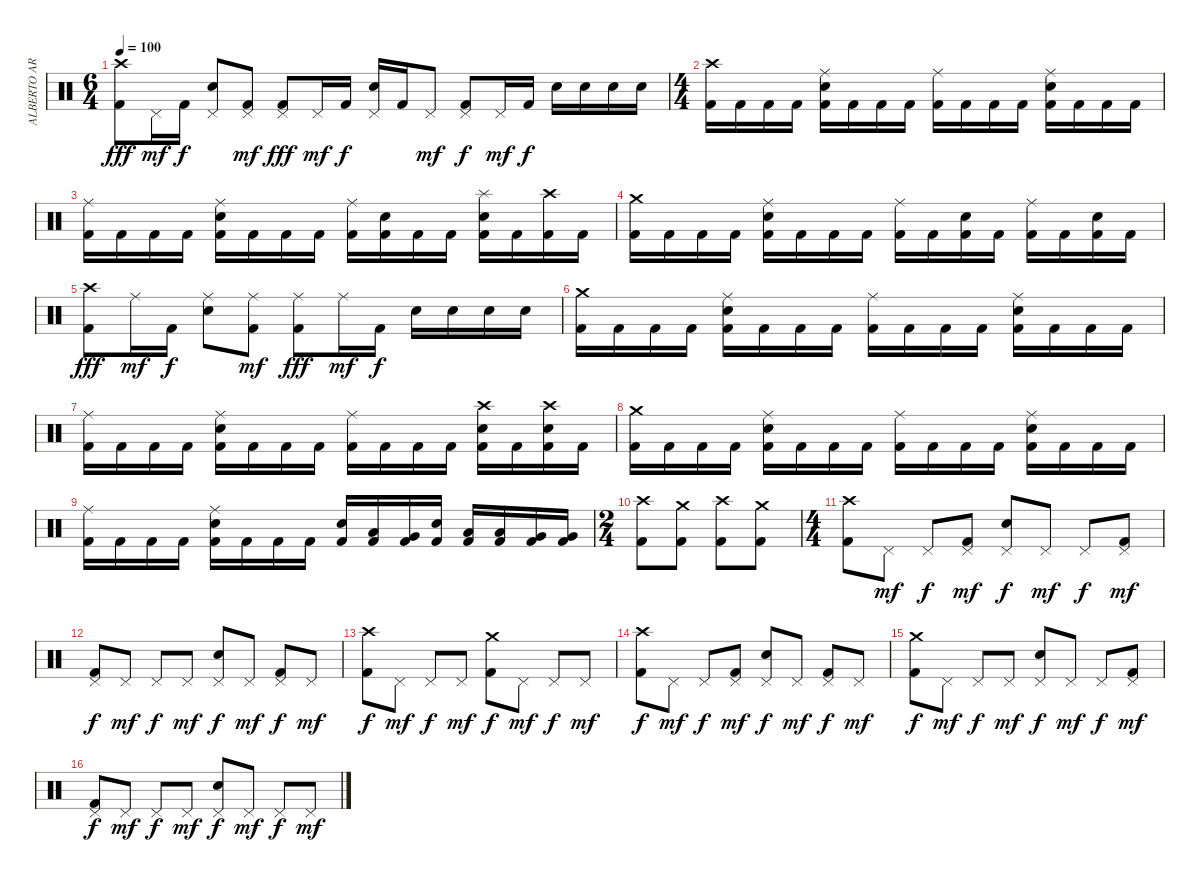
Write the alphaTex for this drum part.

\track ("ALBERTO ARDINES" "ALBERTO AR") {instrument percussion}
\staff {score}
\articulation defaults
\ts (6 4)
\tempo 100
\clef neutral
\ks c
("Crash high (hit)" "Kick (hit) 2").8{dy fff} "Pedal Hi-Hat (hit)".16{dy mf} "Kick (hit) 2".16{dy f} ("Pedal Hi-Hat (hit)" "Electric Snare (hit)").8 ("Pedal Hi-Hat (hit)" "Kick (hit) 2").8{dy mf} ("Pedal Hi-Hat (hit)" "Kick (hit) 2").8{dy fff} "Pedal Hi-Hat (hit)".16{dy mf} "Kick (hit) 2".16{dy f} ("Pedal Hi-Hat (hit)" "Electric Snare (hit)").16 "Kick (hit) 2".16 "Pedal Hi-Hat (hit)".8{dy mf} ("Pedal Hi-Hat (hit)" "Kick (hit) 2").8{dy f} "Pedal Hi-Hat (hit)".16{dy mf} "Kick (hit) 2".16{dy f} "Electric Snare (hit)".16 "Electric Snare (hit)".16 "Electric Snare (hit)".16 "Electric Snare (hit)".16 |
\ts (4 4)
("Crash high (hit)" "Kick (hit) 2").16 "Kick (hit) 2".16 "Kick (hit) 2".16 "Kick (hit) 2".16 ("Ride (middle)" "Electric Snare (hit)" "Kick (hit) 2").16 "Kick (hit) 2".16 "Kick (hit) 2".16 "Kick (hit) 2".16 ("Ride (middle)" "Kick (hit) 2").16 "Kick (hit) 2".16 "Kick (hit) 2".16 "Kick (hit) 2".16 ("Ride (middle)" "Electric Snare (hit)" "Kick (hit) 2").16 "Kick (hit) 2".16 "Kick (hit) 2".16 "Kick (hit) 2".16 |
("Ride (middle)" "Kick (hit) 2").16 "Kick (hit) 2".16 "Kick (hit) 2".16 "Kick (hit) 2".16 ("Ride (middle)" "Electric Snare (hit)" "Kick (hit) 2").16 "Kick (hit) 2".16 "Kick (hit) 2".16 "Kick (hit) 2".16 ("Ride (middle)" "Kick (hit) 2").16 ("Electric Snare (hit)" "Kick (hit) 2").16 "Kick (hit) 2".16 "Kick (hit) 2".16 ("Splash (hit)" "Electric Snare (hit)" "Kick (hit) 2").16 "Kick (hit) 2".16 ("Crash high (hit)" "Kick (hit) 2").16 "Kick (hit) 2".16 |
("Crash medium (hit)" "Kick (hit) 2").16 "Kick (hit) 2".16 "Kick (hit) 2".16 "Kick (hit) 2".16 ("Ride (middle)" "Electric Snare (hit)" "Kick (hit) 2").16 "Kick (hit) 2".16 "Kick (hit) 2".16 "Kick (hit) 2".16 ("Ride (middle)" "Kick (hit) 2").16 "Kick (hit) 2".16 ("Electric Snare (hit)" "Kick (hit) 2").16 "Kick (hit) 2".16 ("Ride (middle)" "Kick (hit) 2").16 "Kick (hit) 2".16 ("Electric Snare (hit)" "Kick (hit) 2").16 "Kick (hit) 2".16 |
("Crash high (hit)" "Kick (hit) 2").8{dy fff} "Ride (middle)".16{dy mf} "Kick (hit) 2".16{dy f} ("Ride (middle)" "Electric Snare (hit)").8 ("Ride (middle)" "Kick (hit) 2").8{dy mf} ("Ride (middle)" "Kick (hit) 2").8{dy fff} "Ride (middle)".16{dy mf} "Kick (hit) 2".16{dy f} "Electric Snare (hit)".16 "Electric Snare (hit)".16 "Electric Snare (hit)".16 "Electric Snare (hit)".16 |
("Crash medium (hit)" "Kick (hit) 2").16 "Kick (hit) 2".16 "Kick (hit) 2".16 "Kick (hit) 2".16 ("Ride (middle)" "Electric Snare (hit)" "Kick (hit) 2").16 "Kick (hit) 2".16 "Kick (hit) 2".16 "Kick (hit) 2".16 ("Ride (middle)" "Kick (hit) 2").16 "Kick (hit) 2".16 "Kick (hit) 2".16 "Kick (hit) 2".16 ("Ride (middle)" "Electric Snare (hit)" "Kick (hit) 2").16 "Kick (hit) 2".16 "Kick (hit) 2".16 "Kick (hit) 2".16 |
("Ride (middle)" "Kick (hit) 2").16 "Kick (hit) 2".16 "Kick (hit) 2".16 "Kick (hit) 2".16 ("Ride (middle)" "Electric Snare (hit)" "Kick (hit) 2").16 "Kick (hit) 2".16 "Kick (hit) 2".16 "Kick (hit) 2".16 ("Ride (middle)" "Kick (hit) 2").16 "Kick (hit) 2".16 "Kick (hit) 2".16 "Kick (hit) 2".16 ("Crash high (hit)" "Electric Snare (hit)" "Kick (hit) 2").16 "Kick (hit) 2".16 ("Crash high (hit)" "Electric Snare (hit)" "Kick (hit) 2").16 "Kick (hit) 2".16 |
("Crash medium (hit)" "Kick (hit) 2").16 "Kick (hit) 2".16 "Kick (hit) 2".16 "Kick (hit) 2".16 ("Ride (middle)" "Electric Snare (hit)" "Kick (hit) 2").16 "Kick (hit) 2".16 "Kick (hit) 2".16 "Kick (hit) 2".16 ("Ride (middle)" "Kick (hit) 2").16 "Kick (hit) 2".16 "Kick (hit) 2".16 "Kick (hit) 2".16 ("Ride (middle)" "Electric Snare (hit)" "Kick (hit) 2").16 "Kick (hit) 2".16 "Kick (hit) 2".16 "Kick (hit) 2".16 |
("Ride (middle)" "Kick (hit) 2").16 "Kick (hit) 2".16 "Kick (hit) 2".16 "Kick (hit) 2".16 ("Ride (middle)" "Electric Snare (hit)" "Kick (hit) 2").16 "Kick (hit) 2".16 "Kick (hit) 2".16 "Kick (hit) 2".16 ("Electric Snare (hit)" "Kick (hit) 2").16 ("Low Tom (hit)" "Kick (hit) 2").16 ("Very Low Tom (hit)" "Kick (hit) 2").16 ("Electric Snare (hit)" "Kick (hit) 2").16 ("Low Tom (hit)" "Kick (hit) 2").16 ("Low Tom (hit)" "Kick (hit) 2").16 ("Very Low Tom (hit)" "Kick (hit) 2").16 ("Very Low Tom (hit)" "Kick (hit) 2").16 |
\ts (2 4)
("Crash high (hit)" "Kick (hit) 2").8 ("Crash medium (hit)" "Kick (hit) 2").8 ("Crash high (hit)" "Kick (hit) 2").8 ("Crash medium (hit)" "Kick (hit) 2").8 |
\ts (4 4)
("Crash high (hit)" "Kick (hit) 2").8 "Pedal Hi-Hat (hit)".8{dy mf} "Pedal Hi-Hat (hit)".8{dy f} ("Pedal Hi-Hat (hit)" "Kick (hit) 2").8{dy mf} ("Pedal Hi-Hat (hit)" "Electric Snare (hit)").8{dy f} "Pedal Hi-Hat (hit)".8{dy mf} "Pedal Hi-Hat (hit)".8{dy f} ("Pedal Hi-Hat (hit)" "Kick (hit) 2").8{dy mf} |
("Pedal Hi-Hat (hit)" "Kick (hit) 2").8{dy f} "Pedal Hi-Hat (hit)".8{dy mf} "Pedal Hi-Hat (hit)".8{dy f} "Pedal Hi-Hat (hit)".8{dy mf} ("Pedal Hi-Hat (hit)" "Electric Snare (hit)").8{dy f} "Pedal Hi-Hat (hit)".8{dy mf} ("Pedal Hi-Hat (hit)" "Kick (hit) 2").8{dy f} "Pedal Hi-Hat (hit)".8{dy mf} |
("Crash high (hit)" "Kick (hit) 2").8{dy f} "Pedal Hi-Hat (hit)".8{dy mf} "Pedal Hi-Hat (hit)".8{dy f} "Pedal Hi-Hat (hit)".8{dy mf} ("Crash medium (hit)" "Kick (hit) 2").8{dy f} "Pedal Hi-Hat (hit)".8{dy mf} "Pedal Hi-Hat (hit)".8{dy f} "Pedal Hi-Hat (hit)".8{dy mf} |
("Crash high (hit)" "Kick (hit) 2").8{dy f} "Pedal Hi-Hat (hit)".8{dy mf} "Pedal Hi-Hat (hit)".8{dy f} ("Pedal Hi-Hat (hit)" "Kick (hit) 2").8{dy mf} ("Pedal Hi-Hat (hit)" "Electric Snare (hit)").8{dy f} "Pedal Hi-Hat (hit)".8{dy mf} ("Pedal Hi-Hat (hit)" "Kick (hit) 2").8{dy f} "Pedal Hi-Hat (hit)".8{dy mf} |
("Crash medium (hit)" "Kick (hit) 2").8{dy f} "Pedal Hi-Hat (hit)".8{dy mf} "Pedal Hi-Hat (hit)".8{dy f} "Pedal Hi-Hat (hit)".8{dy mf} ("Pedal Hi-Hat (hit)" "Electric Snare (hit)").8{dy f} "Pedal Hi-Hat (hit)".8{dy mf} "Pedal Hi-Hat (hit)".8{dy f} ("Pedal Hi-Hat (hit)" "Kick (hit) 2").8{dy mf} |
("Pedal Hi-Hat (hit)" "Kick (hit) 2").8{dy f} "Pedal Hi-Hat (hit)".8{dy mf} "Pedal Hi-Hat (hit)".8{dy f} "Pedal Hi-Hat (hit)".8{dy mf} ("Pedal Hi-Hat (hit)" "Electric Snare (hit)").8{dy f} "Pedal Hi-Hat (hit)".8{dy mf} "Pedal Hi-Hat (hit)".8{dy f} "Pedal Hi-Hat (hit)".8{dy mf}
